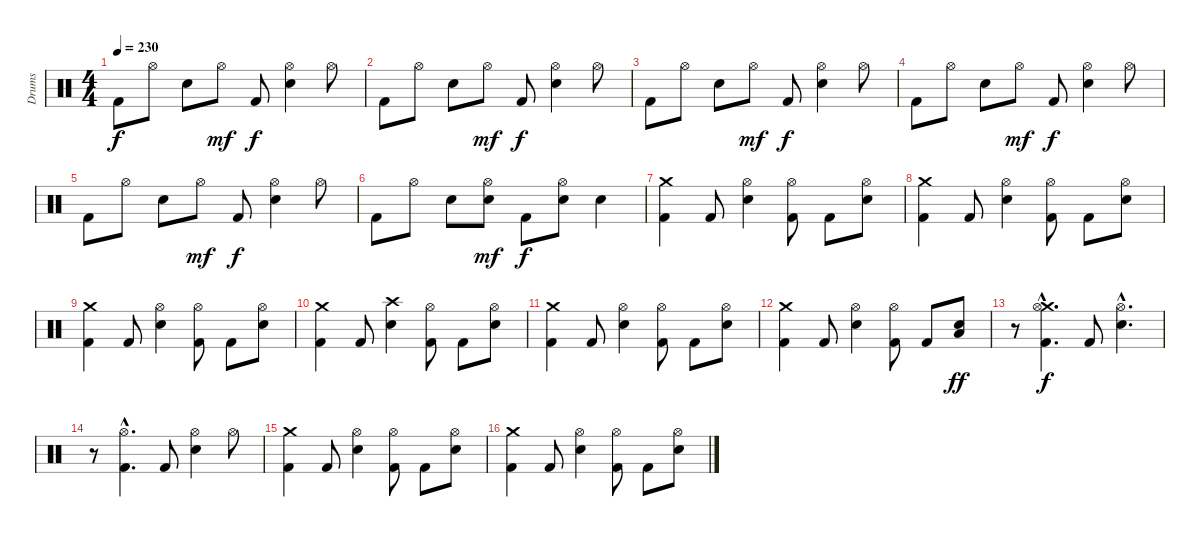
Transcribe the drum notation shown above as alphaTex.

\track ("Drums" "Drums") {instrument percussion}
\staff {score}
\articulation defaults
\ts (4 4)
\tempo 230
\clef neutral
\ks c "Kick (hit) 2".8{dy f} "Hi-Hat (open)".8 "Electric Snare (hit)".8 "Hi-Hat (open)".8{dy mf} "Kick (hit) 2".8{dy f}
("Hi-Hat (open)" "Electric Snare (hit)").4 "Hi-Hat (open)".8 |
"Kick (hit) 2".8 "Hi-Hat (open)".8 "Electric Snare (hit)".8 "Hi-Hat (open)".8{dy mf} "Kick (hit) 2".8{dy f} ("Hi-Hat (open)" "Electric Snare (hit)").4 "Hi-Hat (open)".8 |
"Kick (hit) 2".8 "Hi-Hat (open)".8 "Electric Snare (hit)".8 "Hi-Hat (open)".8{dy mf} "Kick (hit) 2".8{dy f} ("Hi-Hat (open)" "Electric Snare (hit)").4 "Hi-Hat (open)".8 |
"Kick (hit) 2".8 "Hi-Hat (open)".8 "Electric Snare (hit)".8 "Hi-Hat (open)".8{dy mf} "Kick (hit) 2".8{dy f} ("Hi-Hat (open)" "Electric Snare (hit)").4 "Hi-Hat (open)".8 |
"Kick (hit) 2".8 "Hi-Hat (open)".8 "Electric Snare (hit)".8 "Hi-Hat (open)".8{dy mf} "Kick (hit) 2".8{dy f} ("Hi-Hat (open)" "Electric Snare (hit)").4 "Hi-Hat (open)".8 |
"Kick (hit) 2".8 "Hi-Hat (open)".8 "Electric Snare (hit)".8 ("Hi-Hat (open)" "Electric Snare (hit)").8{dy mf} "Kick (hit) 2".8{dy f} ("Hi-Hat (open)" "Electric Snare (hit)").8 "Electric Snare (hit)".4 |
("Crash medium (hit)" "Kick (hit) 2").4 "Kick (hit) 2".8 ("Hi-Hat (open)" "Electric Snare (hit)").4 ("Hi-Hat (open)" "Kick (hit) 2").8 "Kick (hit) 2".8 ("Hi-Hat (open)" "Electric Snare (hit)").8 |
("Crash medium (hit)" "Kick (hit) 2").4 "Kick (hit) 2".8 ("Hi-Hat (open)" "Electric Snare (hit)").4 ("Hi-Hat (open)" "Kick (hit) 2").8 "Kick (hit) 2".8 ("Hi-Hat (open)" "Electric Snare (hit)").8 |
("Crash medium (hit)" "Kick (hit) 2").4 "Kick (hit) 2".8 ("Hi-Hat (open)" "Electric Snare (hit)").4 ("Hi-Hat (open)" "Kick (hit) 2").8 "Kick (hit) 2".8 ("Hi-Hat (open)" "Electric Snare (hit)").8 |
("Crash medium (hit)" "Kick (hit) 2").4 "Kick (hit) 2".8 ("Crash high (hit)" "Electric Snare (hit)").4 ("Hi-Hat (open)" "Kick (hit) 2").8 "Kick (hit) 2".8 ("Hi-Hat (open)" "Electric Snare (hit)").8 |
("Crash medium (hit)" "Kick (hit) 2").4 "Kick (hit) 2".8 ("Hi-Hat (open)" "Electric Snare (hit)").4 ("Hi-Hat (open)" "Kick (hit) 2").8 "Kick (hit) 2".8 ("Hi-Hat (open)" "Electric Snare (hit)").8 |
("Crash medium (hit)" "Kick (hit) 2").4 "Kick (hit) 2".8 ("Hi-Hat (open)" "Electric Snare (hit)").4 ("Hi-Hat (open)" "Kick (hit) 2").8 "Kick (hit) 2".8 ("Low Floor Tom (hit)" "Electric Snare (hit)").8{dy ff} |
r.8 ("Crash medium (hit)"{hac} "Hi-Hat (open)"{hac} "Kick (hit) 2"{hac}).4{d dy f} "Kick (hit) 2".8 ("Hi-Hat (open)"{hac} "Electric Snare (hit)"{hac}).4{d} |
r.8 ("Hi-Hat (open)"{hac} "Kick (hit) 2"{hac}).4{d} "Kick (hit) 2".8 ("Hi-Hat (open)" "Electric Snare (hit)").4 "Hi-Hat (open)".8 |
("Crash medium (hit)" "Kick (hit) 2").4 "Kick (hit) 2".8 ("Hi-Hat (open)" "Electric Snare (hit)").4 ("Hi-Hat (open)" "Kick (hit) 2").8 "Kick (hit) 2".8 ("Hi-Hat (open)" "Electric Snare (hit)").8 |
("Crash medium (hit)" "Kick (hit) 2").4 "Kick (hit) 2".8 ("Hi-Hat (open)" "Electric Snare (hit)").4 ("Hi-Hat (open)" "Kick (hit) 2").8 "Kick (hit) 2".8 ("Hi-Hat (open)" "Electric Snare (hit)").8
